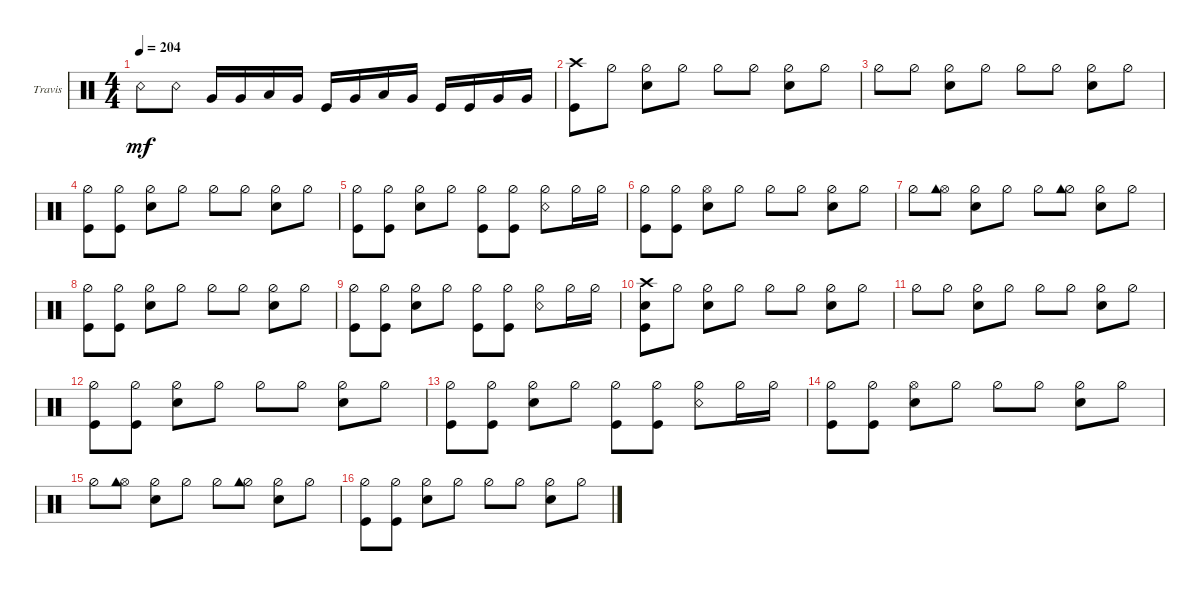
\defaultSystemsLayout 4
\bracketExtendMode groupsimilarinstruments
\firstSystemTrackNameOrientation horizontal
\otherSystemsTrackNameOrientation horizontal
\track ("Travis Barker" "Travis") {instrument percussion}
\staff {score}
\articulation defaults
\ts (4 4)
\tempo 204
\clef neutral
\ks c "Snare (rim shot)".8{dy mf} "Snare (rim shot)".8 "Very Low Tom (hit)".16 "Very Low Tom (hit)".16 "Low Tom (hit)".16 "Very Low Tom (hit)".16 "Kick (hit)".16 "Very Low Tom (hit)".16 "Low Tom (hit)".16 "Very Low Tom (hit)".16 "Kick (hit)".16 "Kick (hit)".16 "Very Low Tom (hit)".16 "Very Low Tom (hit)".16
|
("Crash high (hit)" "Kick (hit)").8 "Hi-Hat (half)".8 ("Hi-Hat (half)" "Snare (hit) 2").8 "Hi-Hat (half)".8 "Hi-Hat (half)".8 "Hi-Hat (half)".8 ("Hi-Hat (half)" "Snare (hit) 2").8 "Hi-Hat (half)".8 |
"Hi-Hat (half)".8 "Hi-Hat (half)".8 ("Hi-Hat (half)" "Snare (hit) 2").8 "Hi-Hat (half)".8 "Hi-Hat (half)".8 "Hi-Hat (half)".8 ("Hi-Hat (half)" "Snare (hit) 2").8 "Hi-Hat (half)".8 |
("Hi-Hat (half)" "Kick (hit)").8 ("Kick (hit)" "Hi-Hat (half)").8 ("Hi-Hat (half)" "Snare (hit) 2").8 "Hi-Hat (half)".8 "Hi-Hat (half)".8 "Hi-Hat (half)".8 ("Hi-Hat (half)" "Snare (hit) 2").8 "Hi-Hat (half)".8 |
("Hi-Hat (half)" "Kick (hit)").8 ("Hi-Hat (half)" "Kick (hit)").8 ("Hi-Hat (half)" "Snare (hit) 2").8 "Hi-Hat (half)".8 ("Hi-Hat (half)" "Kick (hit)").8 ("Hi-Hat (half)" "Kick (hit)").8 ("Hi-Hat (half)" "Snare (rim shot)").8 "Hi-Hat (half)".16 "Hi-Hat (half)".16 |
("Hi-Hat (half)" "Kick (hit)").8 ("Kick (hit)" "Hi-Hat (half)").8 ("Hi-Hat (open)" "Snare (hit) 2").8 "Hi-Hat (half)".8 "Hi-Hat (half)".8 "Hi-Hat (half)".8 ("Hi-Hat (half)" "Snare (hit) 2").8 "Hi-Hat (half)".8 |
"Hi-Hat (half)".8 ("Hi-Hat (open)" "Cowbell high (hit)").8 ("Hi-Hat (half)" "Snare (hit) 2").8 "Hi-Hat (half)".8 "Hi-Hat (half)".8 ("Hi-Hat (half)" "Cowbell high (hit)").8 ("Hi-Hat (half)" "Snare (hit) 2").8 "Hi-Hat (half)".8 |
("Hi-Hat (half)" "Kick (hit)").8 ("Kick (hit)" "Hi-Hat (half)").8 ("Hi-Hat (half)" "Snare (hit) 2").8 "Hi-Hat (half)".8 "Hi-Hat (half)".8 "Hi-Hat (half)".8 ("Hi-Hat (half)" "Snare (hit) 2").8 "Hi-Hat (half)".8 |
("Hi-Hat (half)" "Kick (hit)").8 ("Hi-Hat (half)" "Kick (hit)").8 ("Hi-Hat (half)" "Snare (hit) 2").8 "Hi-Hat (half)".8 ("Hi-Hat (half)" "Kick (hit)").8 ("Hi-Hat (half)" "Kick (hit)").8 ("Hi-Hat (half)" "Snare (rim shot)").8 "Hi-Hat (half)".16 "Hi-Hat (half)".16 |
("Crash high (hit)" "Kick (hit)" "Snare (hit) 2").8 "Hi-Hat (half)".8 ("Hi-Hat (half)" "Snare (hit) 2").8 "Hi-Hat (half)".8 "Hi-Hat (half)".8 "Hi-Hat (half)".8 ("Hi-Hat (half)" "Snare (hit) 2").8 "Hi-Hat (half)".8 |
"Hi-Hat (half)".8 "Hi-Hat (half)".8 ("Hi-Hat (half)" "Snare (hit) 2").8 "Hi-Hat (half)".8 "Hi-Hat (half)".8 "Hi-Hat (half)".8 ("Hi-Hat (half)" "Snare (hit) 2").8 "Hi-Hat (half)".8 |
("Hi-Hat (half)" "Kick (hit)").8 ("Kick (hit)" "Hi-Hat (half)").8 ("Hi-Hat (half)" "Snare (hit) 2").8 "Hi-Hat (half)".8 "Hi-Hat (half)".8 "Hi-Hat (half)".8 ("Hi-Hat (half)" "Snare (hit) 2").8 "Hi-Hat (half)".8 |
("Hi-Hat (half)" "Kick (hit)").8 ("Hi-Hat (half)" "Kick (hit)").8 ("Hi-Hat (half)" "Snare (hit) 2").8 "Hi-Hat (half)".8 ("Hi-Hat (half)" "Kick (hit)").8 ("Hi-Hat (half)" "Kick (hit)").8 ("Hi-Hat (half)" "Snare (rim shot)").8 "Hi-Hat (half)".16 "Hi-Hat (half)".16 |
("Hi-Hat (half)" "Kick (hit)").8 ("Kick (hit)" "Hi-Hat (half)").8 ("Hi-Hat (open)" "Snare (hit) 2").8 "Hi-Hat (half)".8 "Hi-Hat (half)".8 "Hi-Hat (half)".8 ("Hi-Hat (half)" "Snare (hit) 2").8 "Hi-Hat (half)".8 |
"Hi-Hat (half)".8 ("Hi-Hat (open)" "Cowbell high (hit)").8 ("Hi-Hat (half)" "Snare (hit) 2").8 "Hi-Hat (half)".8 "Hi-Hat (half)".8 ("Hi-Hat (half)" "Cowbell high (hit)").8 ("Hi-Hat (half)" "Snare (hit) 2").8 "Hi-Hat (half)".8 |
("Hi-Hat (half)" "Kick (hit)").8 ("Kick (hit)" "Hi-Hat (half)").8 ("Hi-Hat (half)" "Snare (hit) 2").8 "Hi-Hat (half)".8 "Hi-Hat (half)".8 "Hi-Hat (half)".8 ("Hi-Hat (half)" "Snare (hit) 2").8 "Hi-Hat (half)".8
